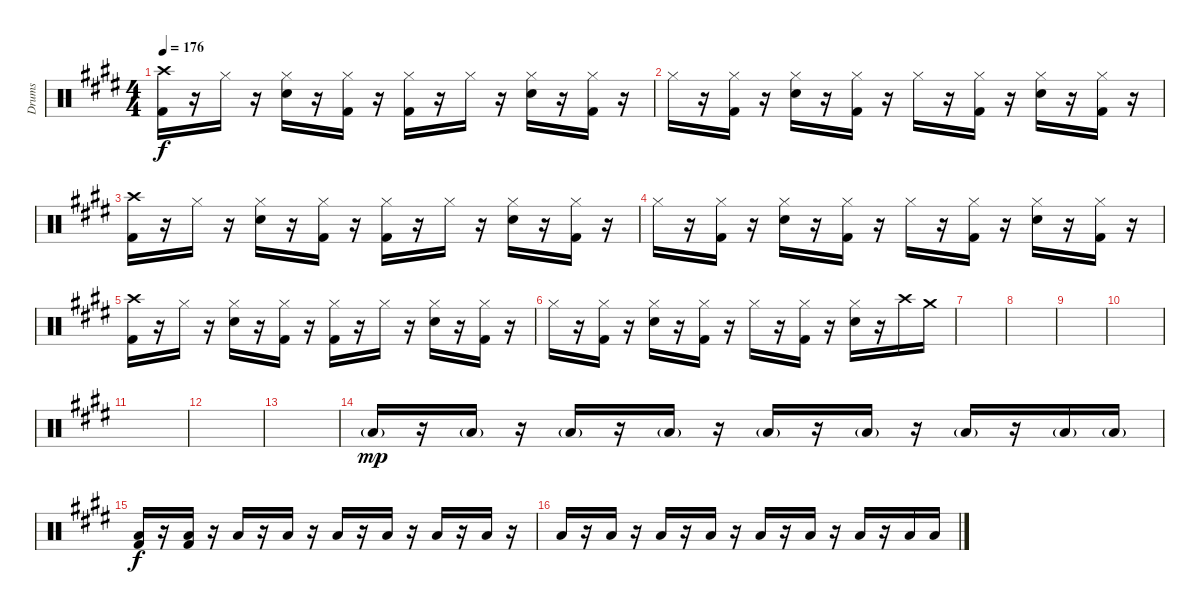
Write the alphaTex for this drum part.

\track ("Drums" "Drums") {instrument percussion}
\staff {score}
\articulation defaults
\ts (4 4)
\tempo 176
\clef neutral
\ks e
("Crash high (hit)" "Kick (hit) 2").16{dy f} r.16 "Hi-Hat (closed)".16 r.16 ("Hi-Hat (closed)" "Electric Snare (hit)").16 r.16 ("Hi-Hat (closed)" "Kick (hit) 2").16 r.16 ("Hi-Hat (closed)" "Kick (hit) 2").16 r.16 "Hi-Hat (closed)".16 r.16 ("Hi-Hat (closed)" "Electric Snare (hit)").16 r.16 ("Hi-Hat (closed)" "Kick (hit) 2").16 r.16 |
"Hi-Hat (closed)".16 r.16 ("Hi-Hat (closed)" "Kick (hit) 2").16 r.16 ("Hi-Hat (closed)" "Electric Snare (hit)").16 r.16 ("Hi-Hat (closed)" "Kick (hit) 2").16 r.16 "Hi-Hat (closed)".16 r.16 ("Hi-Hat (closed)" "Kick (hit) 2").16 r.16 ("Hi-Hat (closed)" "Electric Snare (hit)").16 r.16 ("Hi-Hat (closed)" "Kick (hit) 2").16 r.16 |
("Crash high (hit)" "Kick (hit) 2").16 r.16 "Hi-Hat (closed)".16 r.16 ("Hi-Hat (closed)" "Electric Snare (hit)").16 r.16 ("Hi-Hat (closed)" "Kick (hit) 2").16 r.16 ("Hi-Hat (closed)" "Kick (hit) 2").16 r.16 "Hi-Hat (closed)".16 r.16 ("Hi-Hat (closed)" "Electric Snare (hit)").16 r.16 ("Hi-Hat (closed)" "Kick (hit) 2").16 r.16 |
"Hi-Hat (closed)".16 r.16 ("Hi-Hat (closed)" "Kick (hit) 2").16 r.16 ("Hi-Hat (closed)" "Electric Snare (hit)").16 r.16 ("Hi-Hat (closed)" "Kick (hit) 2").16 r.16 "Hi-Hat (closed)".16 r.16 ("Hi-Hat (closed)" "Kick (hit) 2").16 r.16 ("Hi-Hat (closed)" "Electric Snare (hit)").16 r.16 ("Hi-Hat (closed)" "Kick (hit) 2").16 r.16 |
("Crash high (hit)" "Kick (hit) 2").16 r.16 "Hi-Hat (closed)".16 r.16 ("Hi-Hat (closed)" "Electric Snare (hit)").16 r.16 ("Hi-Hat (closed)" "Kick (hit) 2").16 r.16 ("Hi-Hat (closed)" "Kick (hit) 2").16 r.16 "Hi-Hat (closed)".16 r.16 ("Hi-Hat (closed)" "Electric Snare (hit)").16 r.16 ("Hi-Hat (closed)" "Kick (hit) 2").16 r.16 |
"Hi-Hat (closed)".16 r.16 ("Hi-Hat (closed)" "Kick (hit) 2").16 r.16 ("Hi-Hat (closed)" "Electric Snare (hit)").16 r.16 ("Hi-Hat (closed)" "Kick (hit) 2").16 r.16 "Hi-Hat (closed)".16 r.16 ("Hi-Hat (closed)" "Kick (hit) 2").16 r.16 ("Hi-Hat (closed)" "Electric Snare (hit)").16 r.16 "Crash high (hit)".16 "Crash medium (hit)".16 |
|
|
|
|
|
|
|
"Low Floor Tom (hit)"{g}.16{dy mp} r.16 "Low Floor Tom (hit)"{g}.16 r.16 "Low Floor Tom (hit)"{g}.16 r.16 "Low Floor Tom (hit)"{g}.16 r.16 "Low Floor Tom (hit)"{g}.16 r.16 "Low Floor Tom (hit)"{g}.16 r.16 "Low Floor Tom (hit)"{g}.16 r.16 "Low Floor Tom (hit)"{g}.16 "Low Floor Tom (hit)"{g}.16 |
("Low Floor Tom (hit)" "Kick (hit) 2").16{dy f} r.16 ("Low Floor Tom (hit)" "Kick (hit) 2").16 r.16 "Low Floor Tom (hit)".16 r.16 "Low Floor Tom (hit)".16 r.16 "Low Floor Tom (hit)".16 r.16 "Low Floor Tom (hit)".16 r.16 "Low Floor Tom (hit)".16 r.16 "Low Floor Tom (hit)".16 r.16 |
"Low Floor Tom (hit)".16 r.16 "Low Floor Tom (hit)".16 r.16 "Low Floor Tom (hit)".16 r.16 "Low Floor Tom (hit)".16 r.16 "Low Floor Tom (hit)".16 r.16 "Low Floor Tom (hit)".16 r.16 "Low Floor Tom (hit)".16 r.16 "Low Floor Tom (hit)".16 "Low Floor Tom (hit)".16
